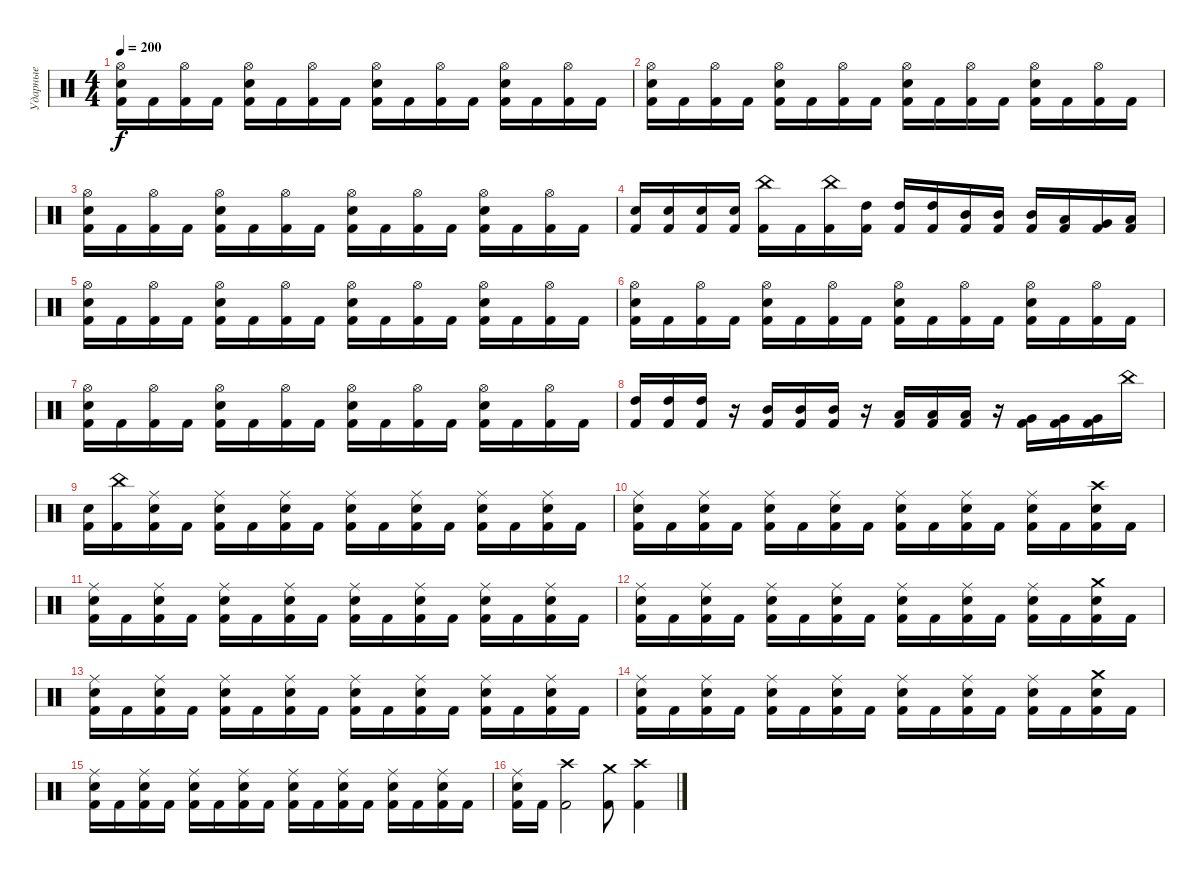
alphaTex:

\track ("Ударные" "Ударные") {instrument percussion}
\staff {score}
\articulation defaults
\ts (4 4)
\tempo 200
\clef neutral
\ks c
("Hi-Hat (open)" "Snare (hit) 2" "Kick (hit) 2").16{dy f} "Kick (hit) 2".16 ("Hi-Hat (open)" "Kick (hit) 2").16 "Kick (hit) 2".16 ("Hi-Hat (open)" "Snare (hit) 2" "Kick (hit) 2").16 "Kick (hit) 2".16 ("Hi-Hat (open)" "Kick (hit) 2").16 "Kick (hit) 2".16 ("Hi-Hat (open)" "Snare (hit) 2" "Kick (hit) 2").16 "Kick (hit) 2".16 ("Hi-Hat (open)" "Kick (hit) 2").16 "Kick (hit) 2".16 ("Hi-Hat (open)" "Snare (hit) 2" "Kick (hit) 2").16 "Kick (hit) 2".16 ("Hi-Hat (open)" "Kick (hit) 2").16 "Kick (hit) 2".16 |
("Hi-Hat (open)" "Snare (hit) 2" "Kick (hit) 2").16 "Kick (hit) 2".16 ("Hi-Hat (open)" "Kick (hit) 2").16 "Kick (hit) 2".16 ("Hi-Hat (open)" "Snare (hit) 2" "Kick (hit) 2").16 "Kick (hit) 2".16 ("Hi-Hat (open)" "Kick (hit) 2").16 "Kick (hit) 2".16 ("Hi-Hat (open)" "Snare (hit) 2" "Kick (hit) 2").16 "Kick (hit) 2".16 ("Hi-Hat (open)" "Kick (hit) 2").16 "Kick (hit) 2".16 ("Hi-Hat (open)" "Snare (hit) 2" "Kick (hit) 2").16 "Kick (hit) 2".16 ("Hi-Hat (open)" "Kick (hit) 2").16 "Kick (hit) 2".16 |
("Hi-Hat (open)" "Snare (hit) 2" "Kick (hit) 2").16 "Kick (hit) 2".16 ("Hi-Hat (open)" "Kick (hit) 2").16 "Kick (hit) 2".16 ("Hi-Hat (open)" "Snare (hit) 2" "Kick (hit) 2").16 "Kick (hit) 2".16 ("Hi-Hat (open)" "Kick (hit) 2").16 "Kick (hit) 2".16 ("Hi-Hat (open)" "Snare (hit) 2" "Kick (hit) 2").16 "Kick (hit) 2".16 ("Hi-Hat (open)" "Kick (hit) 2").16 "Kick (hit) 2".16 ("Hi-Hat (open)" "Snare (hit) 2" "Kick (hit) 2").16 "Kick (hit) 2".16 ("Hi-Hat (open)" "Kick (hit) 2").16 "Kick (hit) 2".16 |
("Snare (hit) 2" "Kick (hit) 2").16 ("Snare (hit) 2" "Kick (hit) 2").16 ("Snare (hit) 2" "Kick (hit) 2").16 ("Snare (hit) 2" "Kick (hit) 2").16 ("China (hit)" "Kick (hit) 2").16 "Kick (hit) 2".16 ("China (hit)" "Kick (hit) 2").16 ("High Tom (hit)" "Kick (hit) 2").16 ("High Tom (hit)" "Kick (hit) 2").16 ("High Tom (hit)" "Kick (hit) 2").16 ("Mid Tom (hit)" "Kick (hit) 2").16 ("Mid Tom (hit)" "Kick (hit) 2").16 ("Mid Tom (hit)" "Kick (hit) 2").16 ("Low Tom (hit)" "Kick (hit) 2").16 ("Very Low Tom (hit)" "Kick (hit) 2").16 ("Low Floor Tom (hit)" "Kick (hit) 2").16 |
("Hi-Hat (open)" "Snare (hit) 2" "Kick (hit) 2").16 "Kick (hit) 2".16 ("Hi-Hat (open)" "Kick (hit) 2").16 "Kick (hit) 2".16 ("Hi-Hat (open)" "Snare (hit) 2" "Kick (hit) 2").16 "Kick (hit) 2".16 ("Hi-Hat (open)" "Kick (hit) 2").16 "Kick (hit) 2".16 ("Hi-Hat (open)" "Snare (hit) 2" "Kick (hit) 2").16 "Kick (hit) 2".16 ("Hi-Hat (open)" "Kick (hit) 2").16 "Kick (hit) 2".16 ("Hi-Hat (open)" "Snare (hit) 2" "Kick (hit) 2").16 "Kick (hit) 2".16 ("Hi-Hat (open)" "Kick (hit) 2").16 "Kick (hit) 2".16 |
("Hi-Hat (open)" "Snare (hit) 2" "Kick (hit) 2").16 "Kick (hit) 2".16 ("Hi-Hat (open)" "Kick (hit) 2").16 "Kick (hit) 2".16 ("Hi-Hat (open)" "Snare (hit) 2" "Kick (hit) 2").16 "Kick (hit) 2".16 ("Hi-Hat (open)" "Kick (hit) 2").16 "Kick (hit) 2".16 ("Hi-Hat (open)" "Snare (hit) 2" "Kick (hit) 2").16 "Kick (hit) 2".16 ("Hi-Hat (open)" "Kick (hit) 2").16 "Kick (hit) 2".16 ("Hi-Hat (open)" "Snare (hit) 2" "Kick (hit) 2").16 "Kick (hit) 2".16 ("Hi-Hat (open)" "Kick (hit) 2").16 "Kick (hit) 2".16 |
("Hi-Hat (open)" "Snare (hit) 2" "Kick (hit) 2").16 "Kick (hit) 2".16 ("Hi-Hat (open)" "Kick (hit) 2").16 "Kick (hit) 2".16 ("Hi-Hat (open)" "Snare (hit) 2" "Kick (hit) 2").16 "Kick (hit) 2".16 ("Hi-Hat (open)" "Kick (hit) 2").16 "Kick (hit) 2".16 ("Hi-Hat (open)" "Snare (hit) 2" "Kick (hit) 2").16 "Kick (hit) 2".16 ("Hi-Hat (open)" "Kick (hit) 2").16 "Kick (hit) 2".16 ("Hi-Hat (open)" "Snare (hit) 2" "Kick (hit) 2").16 "Kick (hit) 2".16 ("Hi-Hat (open)" "Kick (hit) 2").16 "Kick (hit) 2".16 |
("High Tom (hit)" "Kick (hit) 2").16 ("High Tom (hit)" "Kick (hit) 2").16 ("High Tom (hit)" "Kick (hit) 2").16 r.16 ("Mid Tom (hit)" "Kick (hit) 2").16 ("Mid Tom (hit)" "Kick (hit) 2").16 ("Mid Tom (hit)" "Kick (hit) 2").16 r.16 ("Low Tom (hit)" "Kick (hit) 2").16 ("Low Tom (hit)" "Kick (hit) 2").16 ("Low Tom (hit)" "Kick (hit) 2").16 r.16 ("Very Low Tom (hit)" "Kick (hit) 2").16 ("Very Low Tom (hit)" "Kick (hit) 2").16 ("Very Low Tom (hit)" "Kick (hit) 2").16 "China (hit)".16 |
("Snare (hit) 2" "Kick (hit) 2").16 ("China (hit)" "Kick (hit) 2").16 ("Ride (middle)" "Snare (hit) 2" "Kick (hit) 2").16 "Kick (hit) 2".16 ("Ride (middle)" "Snare (hit) 2" "Kick (hit) 2").16 "Kick (hit) 2".16 ("Ride (middle)" "Snare (hit) 2" "Kick (hit) 2").16 "Kick (hit) 2".16 ("Ride (middle)" "Snare (hit) 2" "Kick (hit) 2").16 "Kick (hit) 2".16 ("Ride (middle)" "Snare (hit) 2" "Kick (hit) 2").16 "Kick (hit) 2".16 ("Ride (middle)" "Snare (hit) 2" "Kick (hit) 2").16 "Kick (hit) 2".16 ("Ride (middle)" "Snare (hit) 2" "Kick (hit) 2").16 "Kick (hit) 2".16 |
("Ride (middle)" "Snare (hit) 2" "Kick (hit) 2").16 "Kick (hit) 2".16 ("Ride (middle)" "Snare (hit) 2" "Kick (hit) 2").16 "Kick (hit) 2".16 ("Ride (middle)" "Snare (hit) 2" "Kick (hit) 2").16 "Kick (hit) 2".16 ("Ride (middle)" "Snare (hit) 2" "Kick (hit) 2").16 "Kick (hit) 2".16 ("Ride (middle)" "Snare (hit) 2" "Kick (hit) 2").16 "Kick (hit) 2".16 ("Ride (middle)" "Snare (hit) 2" "Kick (hit) 2").16 "Kick (hit) 2".16 ("Ride (middle)" "Snare (hit) 2" "Kick (hit) 2").16 "Kick (hit) 2".16 ("Crash high (hit)" "Snare (hit) 2" "Kick (hit) 2").16 "Kick (hit) 2".16 |
("Ride (middle)" "Snare (hit) 2" "Kick (hit) 2").16 "Kick (hit) 2".16 ("Ride (middle)" "Snare (hit) 2" "Kick (hit) 2").16 "Kick (hit) 2".16 ("Ride (middle)" "Snare (hit) 2" "Kick (hit) 2").16 "Kick (hit) 2".16 ("Ride (middle)" "Snare (hit) 2" "Kick (hit) 2").16 "Kick (hit) 2".16 ("Ride (middle)" "Snare (hit) 2" "Kick (hit) 2").16 "Kick (hit) 2".16 ("Ride (middle)" "Snare (hit) 2" "Kick (hit) 2").16 "Kick (hit) 2".16 ("Ride (middle)" "Snare (hit) 2" "Kick (hit) 2").16 "Kick (hit) 2".16 ("Ride (middle)" "Snare (hit) 2" "Kick (hit) 2").16 "Kick (hit) 2".16 |
("Ride (middle)" "Snare (hit) 2" "Kick (hit) 2").16 "Kick (hit) 2".16 ("Ride (middle)" "Snare (hit) 2" "Kick (hit) 2").16 "Kick (hit) 2".16 ("Ride (middle)" "Snare (hit) 2" "Kick (hit) 2").16 "Kick (hit) 2".16 ("Ride (middle)" "Snare (hit) 2" "Kick (hit) 2").16 "Kick (hit) 2".16 ("Ride (middle)" "Snare (hit) 2" "Kick (hit) 2").16 "Kick (hit) 2".16 ("Ride (middle)" "Snare (hit) 2" "Kick (hit) 2").16 "Kick (hit) 2".16 ("Ride (middle)" "Snare (hit) 2" "Kick (hit) 2").16 "Kick (hit) 2".16 ("Crash medium (hit)" "Snare (hit) 2" "Kick (hit) 2").16 "Kick (hit) 2".16 |
("Ride (middle)" "Snare (hit) 2" "Kick (hit) 2").16 "Kick (hit) 2".16 ("Ride (middle)" "Snare (hit) 2" "Kick (hit) 2").16 "Kick (hit) 2".16 ("Ride (middle)" "Snare (hit) 2" "Kick (hit) 2").16 "Kick (hit) 2".16 ("Ride (middle)" "Snare (hit) 2" "Kick (hit) 2").16 "Kick (hit) 2".16 ("Ride (middle)" "Snare (hit) 2" "Kick (hit) 2").16 "Kick (hit) 2".16 ("Ride (middle)" "Snare (hit) 2" "Kick (hit) 2").16 "Kick (hit) 2".16 ("Ride (middle)" "Snare (hit) 2" "Kick (hit) 2").16 "Kick (hit) 2".16 ("Ride (middle)" "Snare (hit) 2" "Kick (hit) 2").16 "Kick (hit) 2".16 |
("Ride (middle)" "Snare (hit) 2" "Kick (hit) 2").16 "Kick (hit) 2".16 ("Ride (middle)" "Snare (hit) 2" "Kick (hit) 2").16 "Kick (hit) 2".16 ("Ride (middle)" "Snare (hit) 2" "Kick (hit) 2").16 "Kick (hit) 2".16 ("Ride (middle)" "Snare (hit) 2" "Kick (hit) 2").16 "Kick (hit) 2".16 ("Ride (middle)" "Snare (hit) 2" "Kick (hit) 2").16 "Kick (hit) 2".16 ("Ride (middle)" "Snare (hit) 2" "Kick (hit) 2").16 "Kick (hit) 2".16 ("Ride (middle)" "Snare (hit) 2" "Kick (hit) 2").16 "Kick (hit) 2".16 ("Crash medium (hit)" "Snare (hit) 2" "Kick (hit) 2").16 "Kick (hit) 2".16 |
("Ride (middle)" "Snare (hit) 2" "Kick (hit) 2").16 "Kick (hit) 2".16 ("Ride (middle)" "Snare (hit) 2" "Kick (hit) 2").16 "Kick (hit) 2".16 ("Ride (middle)" "Snare (hit) 2" "Kick (hit) 2").16 "Kick (hit) 2".16 ("Ride (middle)" "Snare (hit) 2" "Kick (hit) 2").16 "Kick (hit) 2".16 ("Ride (middle)" "Snare (hit) 2" "Kick (hit) 2").16 "Kick (hit) 2".16 ("Ride (middle)" "Snare (hit) 2" "Kick (hit) 2").16 "Kick (hit) 2".16 ("Ride (middle)" "Snare (hit) 2" "Kick (hit) 2").16 "Kick (hit) 2".16 ("Ride (middle)" "Snare (hit) 2" "Kick (hit) 2").16 "Kick (hit) 2".16 |
("Ride (middle)" "Snare (hit) 2" "Kick (hit) 2").16 "Kick (hit) 2".16 ("Crash high (hit)" "Kick (hit) 2").2 ("Crash medium (hit)" "Kick (hit) 2").8 ("Crash high (hit)" "Kick (hit) 2").4
